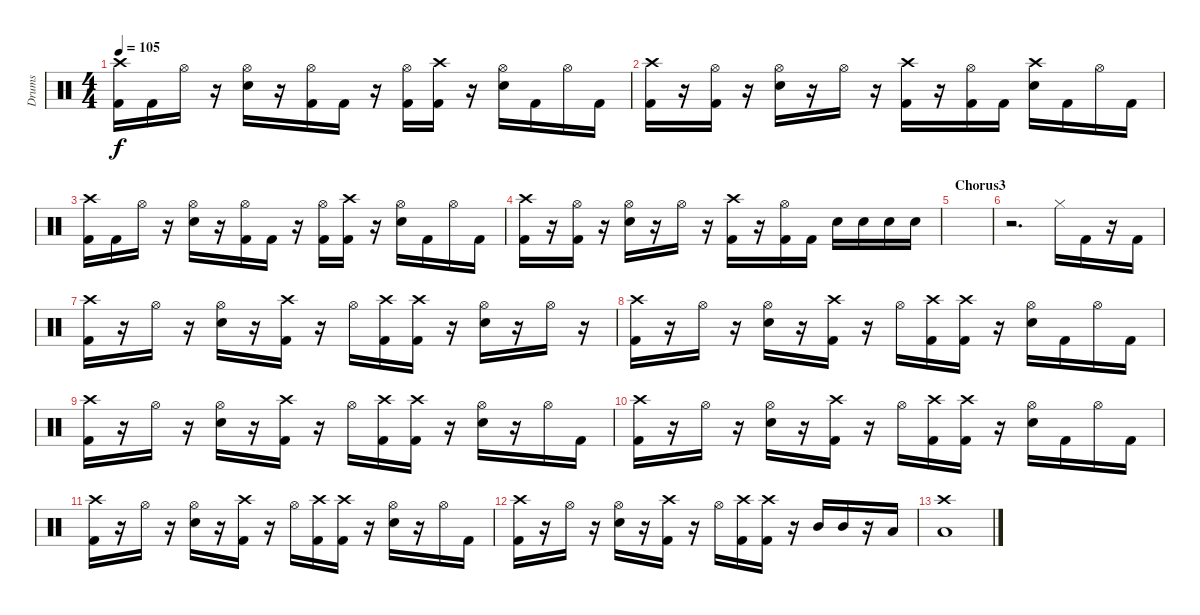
\track ("Drums" "Drums") {instrument percussion}
\staff {score}
\articulation defaults
\ts (4 4)
\tempo 105
\clef neutral
\ks c
("Crash high (hit)" "Kick (hit) 2").16{dy f} "Kick (hit) 2".16 "Hi-Hat (open)".16 r.16 ("Hi-Hat (open)" "Snare (hit) 2").16 r.16 ("Hi-Hat (open)" "Kick (hit) 2").16 "Kick (hit) 2".16 r.16 ("Hi-Hat (open)" "Kick (hit) 2").16 ("Crash high (hit)" "Kick (hit) 2").16 r.16 ("Hi-Hat (open)" "Snare (hit) 2").16 "Kick (hit) 2".16 "Hi-Hat (open)".16 "Kick (hit) 2".16 |
("Crash high (hit)" "Kick (hit) 2").16 r.16 ("Hi-Hat (open)" "Kick (hit) 2").16 r.16 ("Hi-Hat (open)" "Snare (hit) 2").16 r.16 "Hi-Hat (open)".16 r.16 ("Crash high (hit)" "Kick (hit) 2").16 r.16 ("Hi-Hat (open)" "Kick (hit) 2").16 "Kick (hit) 2".16 ("Crash high (hit)" "Snare (hit) 2").16 "Kick (hit) 2".16 "Hi-Hat (open)".16 "Kick (hit) 2".16 |
("Crash high (hit)" "Kick (hit) 2").16 "Kick (hit) 2".16 "Hi-Hat (open)".16 r.16 ("Hi-Hat (open)" "Snare (hit) 2").16 r.16 ("Hi-Hat (open)" "Kick (hit) 2").16 "Kick (hit) 2".16 r.16 ("Hi-Hat (open)" "Kick (hit) 2").16 ("Crash high (hit)" "Kick (hit) 2").16 r.16 ("Hi-Hat (open)" "Snare (hit) 2").16 "Kick (hit) 2".16 "Hi-Hat (open)".16 "Kick (hit) 2".16 |
("Crash high (hit)" "Kick (hit) 2").16 r.16 ("Hi-Hat (open)" "Kick (hit) 2").16 r.16 ("Hi-Hat (open)" "Snare (hit) 2").16 r.16 "Hi-Hat (open)".16 r.16 ("Crash high (hit)" "Kick (hit) 2").16 r.16 ("Hi-Hat (open)" "Kick (hit) 2").16 "Kick (hit) 2".16 "Snare (hit) 2".16 "Snare (hit) 2".16 "Snare (hit) 2".16 "Snare (hit) 2".16 |
\section ("" "Chorus3")
|
r.2{d} "Hi-Hat (closed)".16 "Kick (hit) 2".16 r.16 "Kick (hit) 2".16 |
("Crash high (hit)" "Kick (hit) 2").16 r.16 "Hi-Hat (open)".16 r.16 ("Hi-Hat (open)" "Snare (hit) 2").16 r.16 ("Crash high (hit)" "Kick (hit) 2").16 r.16 "Hi-Hat (open)".16 ("Crash high (hit)" "Kick (hit) 2").16 ("Crash high (hit)" "Kick (hit) 2").16 r.16 ("Hi-Hat (open)" "Snare (hit) 2").16 r.16 "Hi-Hat (open)".16 r.16 |
("Crash high (hit)" "Kick (hit) 2").16 r.16 "Hi-Hat (open)".16 r.16 ("Hi-Hat (open)" "Snare (hit) 2").16 r.16 ("Crash high (hit)" "Kick (hit) 2").16 r.16 "Hi-Hat (open)".16 ("Crash high (hit)" "Kick (hit) 2").16 ("Crash high (hit)" "Kick (hit) 2").16 r.16 ("Hi-Hat (open)" "Snare (hit) 2").16 "Kick (hit) 2".16 "Hi-Hat (open)".16 "Kick (hit) 2".16 |
("Crash high (hit)" "Kick (hit) 2").16 r.16 "Hi-Hat (open)".16 r.16 ("Hi-Hat (open)" "Snare (hit) 2").16 r.16 ("Crash high (hit)" "Kick (hit) 2").16 r.16 "Hi-Hat (open)".16 ("Crash high (hit)" "Kick (hit) 2").16 ("Crash high (hit)" "Kick (hit) 2").16 r.16 ("Hi-Hat (open)" "Snare (hit) 2").16 r.16 "Hi-Hat (open)".16 "Kick (hit) 2".16 |
("Crash high (hit)" "Kick (hit) 2").16 r.16 "Hi-Hat (open)".16 r.16 ("Hi-Hat (open)" "Snare (hit) 2").16 r.16 ("Crash high (hit)" "Kick (hit) 2").16 r.16 "Hi-Hat (open)".16 ("Crash high (hit)" "Kick (hit) 2").16 ("Crash high (hit)" "Kick (hit) 2").16 r.16 ("Hi-Hat (open)" "Snare (hit) 2").16 "Kick (hit) 2".16 "Hi-Hat (open)".16 "Kick (hit) 2".16 |
("Crash high (hit)" "Kick (hit) 2").16 r.16 "Hi-Hat (open)".16 r.16 ("Hi-Hat (open)" "Snare (hit) 2").16 r.16 ("Crash high (hit)" "Kick (hit) 2").16 r.16 "Hi-Hat (open)".16 ("Crash high (hit)" "Kick (hit) 2").16 ("Crash high (hit)" "Kick (hit) 2").16 r.16 ("Hi-Hat (open)" "Snare (hit) 2").16 r.16 "Hi-Hat (open)".16 "Kick (hit) 2".16 |
("Crash high (hit)" "Kick (hit) 2").16 r.16 "Hi-Hat (open)".16 r.16 ("Hi-Hat (open)" "Snare (hit) 2").16 r.16 ("Crash high (hit)" "Kick (hit) 2").16 r.16 "Hi-Hat (open)".16 ("Crash high (hit)" "Kick (hit) 2").16 ("Crash high (hit)" "Kick (hit) 2").16 r.16 "Mid Tom (hit)".16 "Mid Tom (hit)".16 r.16 "Low Tom (hit)".16 |
("Crash high (hit)" "Low Tom (hit)").1
